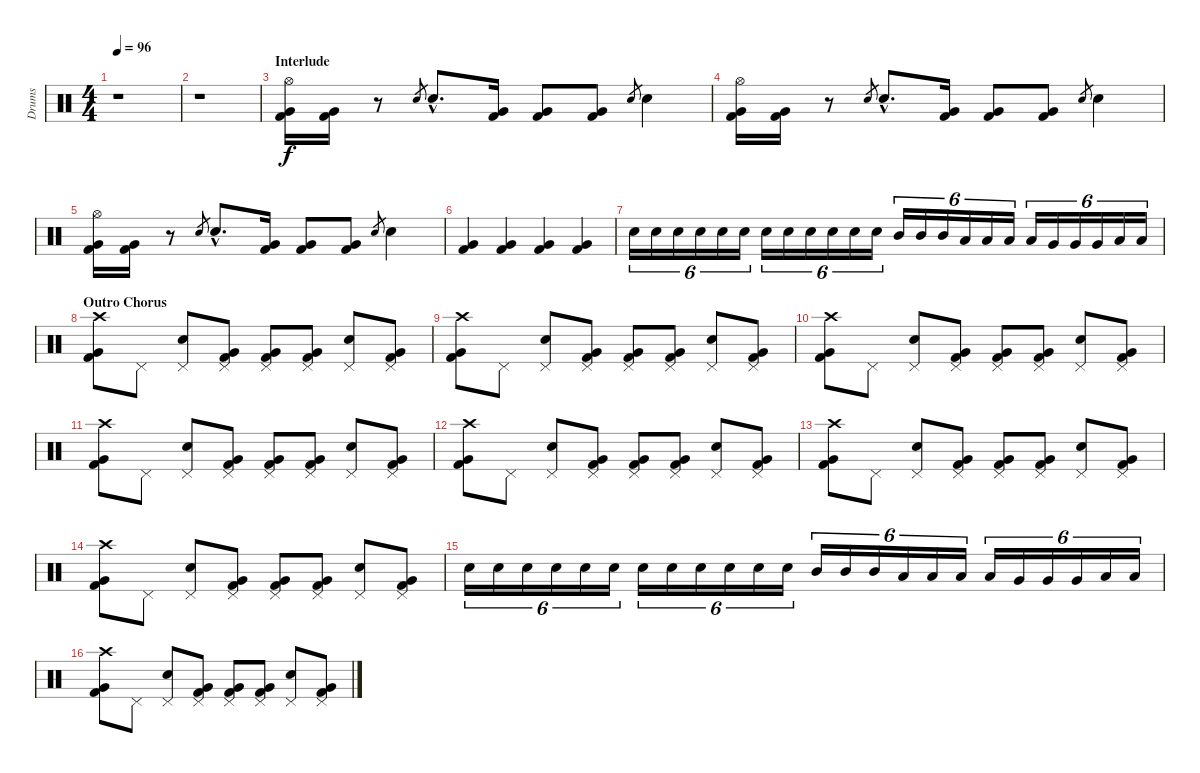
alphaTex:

\track ("Drums" "Drums") {instrument percussion}
\staff {score}
\articulation defaults
\ts (4 4)
\tempo 96
\clef neutral
\ks c
r.1{dy ff} |
r.1 |
\section ("" "Interlude")
("Hi-Hat (open)" "Very Low Tom (hit)" "Kick (hit) 2").16{dy f} ("Very Low Tom (hit)" "Kick (hit) 2").16 r.8 "Electric Snare (hit)".8{gr} "Electric Snare (hit)"{hac}.8{d} ("Very Low Tom (hit)" "Kick (hit) 2").16 ("Very Low Tom (hit)" "Kick (hit) 2").8 ("Very Low Tom (hit)" "Kick (hit) 2").8 "Electric Snare (hit)".8{gr} "Electric Snare (hit)".4 |
("Hi-Hat (open)" "Very Low Tom (hit)" "Kick (hit) 2").16 ("Very Low Tom (hit)" "Kick (hit) 2").16 r.8 "Electric Snare (hit)".8{gr} "Electric Snare (hit)"{hac}.8{d} ("Very Low Tom (hit)" "Kick (hit) 2").16 ("Very Low Tom (hit)" "Kick (hit) 2").8 ("Very Low Tom (hit)" "Kick (hit) 2").8 "Electric Snare (hit)".8{gr} "Electric Snare (hit)".4 |
("Hi-Hat (open)" "Very Low Tom (hit)" "Kick (hit) 2").16 ("Very Low Tom (hit)" "Kick (hit) 2").16 r.8 "Electric Snare (hit)".8{gr} "Electric Snare (hit)"{hac}.8{d} ("Very Low Tom (hit)" "Kick (hit) 2").16 ("Very Low Tom (hit)" "Kick (hit) 2").8 ("Very Low Tom (hit)" "Kick (hit) 2").8 "Electric Snare (hit)".8{gr} "Electric Snare (hit)".4 |
("Very Low Tom (hit)" "Kick (hit) 2").4 ("Very Low Tom (hit)" "Kick (hit) 2").4 ("Very Low Tom (hit)" "Kick (hit) 2").4 ("Very Low Tom (hit)" "Kick (hit) 2").4 |
"Electric Snare (hit)".16{tu (6 4)} "Electric Snare (hit)".16{tu (6 4)} "Electric Snare (hit)".16{tu (6 4)} "Electric Snare (hit)".16{tu (6 4)} "Electric Snare (hit)".16{tu (6 4)} "Electric Snare (hit)".16{tu (6 4)} "Electric Snare (hit)".16{tu (6 4)} "Electric Snare (hit)".16{tu (6 4)} "Electric Snare (hit)".16{tu (6 4)} "Electric Snare (hit)".16{tu (6 4)} "Electric Snare (hit)".16{tu (6 4)} "Electric Snare (hit)".16{tu (6 4)} "Mid Tom (hit)".16{tu (6 4)} "Mid Tom (hit)".16{tu (6 4)} "Mid Tom (hit)".16{tu (6 4)} "Low Tom (hit)".16{tu (6 4)} "Low Tom (hit)".16{tu (6 4)} "Low Tom (hit)".16{tu (6 4)} "Low Tom (hit)".16{tu (6 4)} "Very Low Tom (hit)".16{tu (6 4)} "Very Low Tom (hit)".16{tu (6 4)} "Very Low Tom (hit)".16{tu (6 4)} "Low Floor Tom (hit)".16{tu (6 4)} "Low Floor Tom (hit)".16{tu (6 4)} |
\section ("" "Outro Chorus")
("Crash high (hit)" "Very Low Tom (hit)" "Kick (hit) 2").8 "Pedal Hi-Hat (hit)".8 ("Pedal Hi-Hat (hit)" "Electric Snare (hit)").8 ("Pedal Hi-Hat (hit)" "Very Low Tom (hit)" "Kick (hit) 2").8 ("Pedal Hi-Hat (hit)" "Very Low Tom (hit)" "Kick (hit) 2").8 ("Pedal Hi-Hat (hit)" "Very Low Tom (hit)" "Kick (hit) 2").8 ("Pedal Hi-Hat (hit)" "Electric Snare (hit)").8 ("Pedal Hi-Hat (hit)" "Very Low Tom (hit)" "Kick (hit) 2").8 |
("Crash high (hit)" "Very Low Tom (hit)" "Kick (hit) 2").8 "Pedal Hi-Hat (hit)".8 ("Pedal Hi-Hat (hit)" "Electric Snare (hit)").8 ("Pedal Hi-Hat (hit)" "Very Low Tom (hit)" "Kick (hit) 2").8 ("Pedal Hi-Hat (hit)" "Very Low Tom (hit)" "Kick (hit) 2").8 ("Pedal Hi-Hat (hit)" "Very Low Tom (hit)" "Kick (hit) 2").8 ("Pedal Hi-Hat (hit)" "Electric Snare (hit)").8 ("Pedal Hi-Hat (hit)" "Very Low Tom (hit)" "Kick (hit) 2").8 |
("Crash high (hit)" "Very Low Tom (hit)" "Kick (hit) 2").8 "Pedal Hi-Hat (hit)".8 ("Pedal Hi-Hat (hit)" "Electric Snare (hit)").8 ("Pedal Hi-Hat (hit)" "Very Low Tom (hit)" "Kick (hit) 2").8 ("Pedal Hi-Hat (hit)" "Very Low Tom (hit)" "Kick (hit) 2").8 ("Pedal Hi-Hat (hit)" "Very Low Tom (hit)" "Kick (hit) 2").8 ("Pedal Hi-Hat (hit)" "Electric Snare (hit)").8 ("Pedal Hi-Hat (hit)" "Very Low Tom (hit)" "Kick (hit) 2").8 |
("Crash high (hit)" "Very Low Tom (hit)" "Kick (hit) 2").8 "Pedal Hi-Hat (hit)".8 ("Pedal Hi-Hat (hit)" "Electric Snare (hit)").8 ("Pedal Hi-Hat (hit)" "Very Low Tom (hit)" "Kick (hit) 2").8 ("Pedal Hi-Hat (hit)" "Very Low Tom (hit)" "Kick (hit) 2").8 ("Pedal Hi-Hat (hit)" "Very Low Tom (hit)" "Kick (hit) 2").8 ("Pedal Hi-Hat (hit)" "Electric Snare (hit)").8 ("Pedal Hi-Hat (hit)" "Very Low Tom (hit)" "Kick (hit) 2").8 |
("Crash high (hit)" "Very Low Tom (hit)" "Kick (hit) 2").8 "Pedal Hi-Hat (hit)".8 ("Pedal Hi-Hat (hit)" "Electric Snare (hit)").8 ("Pedal Hi-Hat (hit)" "Very Low Tom (hit)" "Kick (hit) 2").8 ("Pedal Hi-Hat (hit)" "Very Low Tom (hit)" "Kick (hit) 2").8 ("Pedal Hi-Hat (hit)" "Very Low Tom (hit)" "Kick (hit) 2").8 ("Pedal Hi-Hat (hit)" "Electric Snare (hit)").8 ("Pedal Hi-Hat (hit)" "Very Low Tom (hit)" "Kick (hit) 2").8 |
("Crash high (hit)" "Very Low Tom (hit)" "Kick (hit) 2").8 "Pedal Hi-Hat (hit)".8 ("Pedal Hi-Hat (hit)" "Electric Snare (hit)").8 ("Pedal Hi-Hat (hit)" "Very Low Tom (hit)" "Kick (hit) 2").8 ("Pedal Hi-Hat (hit)" "Very Low Tom (hit)" "Kick (hit) 2").8 ("Pedal Hi-Hat (hit)" "Very Low Tom (hit)" "Kick (hit) 2").8 ("Pedal Hi-Hat (hit)" "Electric Snare (hit)").8 ("Pedal Hi-Hat (hit)" "Very Low Tom (hit)" "Kick (hit) 2").8 |
("Crash high (hit)" "Very Low Tom (hit)" "Kick (hit) 2").8 "Pedal Hi-Hat (hit)".8 ("Pedal Hi-Hat (hit)" "Electric Snare (hit)").8 ("Pedal Hi-Hat (hit)" "Very Low Tom (hit)" "Kick (hit) 2").8 ("Pedal Hi-Hat (hit)" "Very Low Tom (hit)" "Kick (hit) 2").8 ("Pedal Hi-Hat (hit)" "Very Low Tom (hit)" "Kick (hit) 2").8 ("Pedal Hi-Hat (hit)" "Electric Snare (hit)").8 ("Pedal Hi-Hat (hit)" "Very Low Tom (hit)" "Kick (hit) 2").8 |
"Electric Snare (hit)".16{tu (6 4)} "Electric Snare (hit)".16{tu (6 4)} "Electric Snare (hit)".16{tu (6 4)} "Electric Snare (hit)".16{tu (6 4)} "Electric Snare (hit)".16{tu (6 4)} "Electric Snare (hit)".16{tu (6 4)} "Electric Snare (hit)".16{tu (6 4)} "Electric Snare (hit)".16{tu (6 4)} "Electric Snare (hit)".16{tu (6 4)} "Electric Snare (hit)".16{tu (6 4)} "Electric Snare (hit)".16{tu (6 4)} "Electric Snare (hit)".16{tu (6 4)} "Mid Tom (hit)".16{tu (6 4)} "Mid Tom (hit)".16{tu (6 4)} "Mid Tom (hit)".16{tu (6 4)} "Low Tom (hit)".16{tu (6 4)} "Low Tom (hit)".16{tu (6 4)} "Low Tom (hit)".16{tu (6 4)} "Low Tom (hit)".16{tu (6 4)} "Very Low Tom (hit)".16{tu (6 4)} "Very Low Tom (hit)".16{tu (6 4)} "Very Low Tom (hit)".16{tu (6 4)} "Low Floor Tom (hit)".16{tu (6 4)} "Low Floor Tom (hit)".16{tu (6 4)} |
("Crash high (hit)" "Very Low Tom (hit)" "Kick (hit) 2").8 "Pedal Hi-Hat (hit)".8 ("Pedal Hi-Hat (hit)" "Electric Snare (hit)").8 ("Pedal Hi-Hat (hit)" "Very Low Tom (hit)" "Kick (hit) 2").8 ("Pedal Hi-Hat (hit)" "Very Low Tom (hit)" "Kick (hit) 2").8 ("Pedal Hi-Hat (hit)" "Very Low Tom (hit)" "Kick (hit) 2").8 ("Pedal Hi-Hat (hit)" "Electric Snare (hit)").8 ("Pedal Hi-Hat (hit)" "Very Low Tom (hit)" "Kick (hit) 2").8
